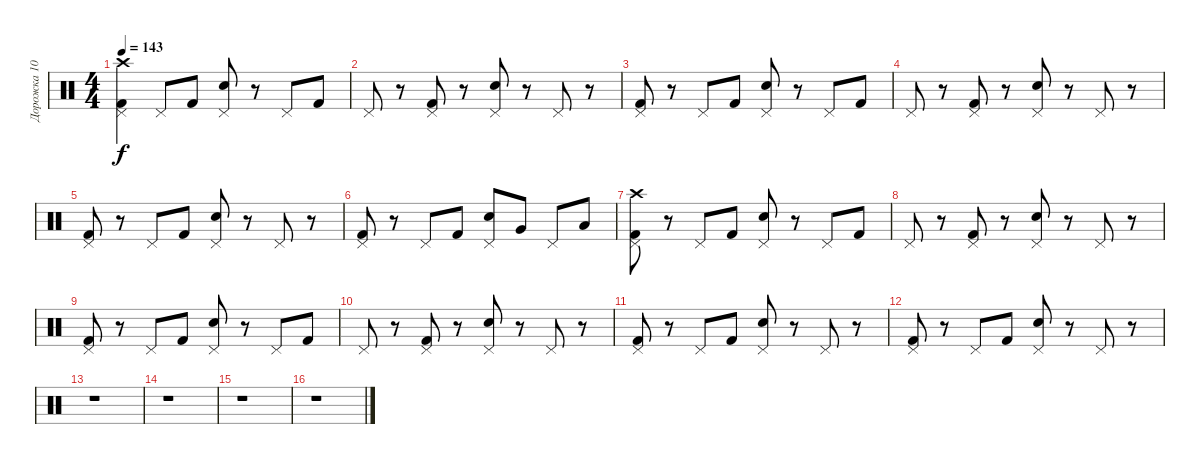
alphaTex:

\track ("Дорожка 10" "Дорожка 10") {instrument percussion}
\staff {score}
\articulation defaults
\ts (4 4)
\tempo 143
\clef neutral
\ks c
("Pedal Hi-Hat (hit)" "Kick (hit) 2" "Crash high (hit)").4{dy f} "Pedal Hi-Hat (hit)".8 "Kick (hit) 2".8 ("Pedal Hi-Hat (hit)" "Snare (hit) 2").8 r.8 "Pedal Hi-Hat (hit)".8 "Kick (hit) 2".8 |
"Pedal Hi-Hat (hit)".8 r.8 ("Pedal Hi-Hat (hit)" "Kick (hit) 2").8 r.8 ("Pedal Hi-Hat (hit)" "Snare (hit) 2").8 r.8 "Pedal Hi-Hat (hit)".8 r.8 |
("Pedal Hi-Hat (hit)" "Kick (hit) 2").8 r.8 "Pedal Hi-Hat (hit)".8 "Kick (hit) 2".8 ("Pedal Hi-Hat (hit)" "Snare (hit) 2").8 r.8 "Pedal Hi-Hat (hit)".8 "Kick (hit) 2".8 |
"Pedal Hi-Hat (hit)".8 r.8 ("Kick (hit) 2" "Pedal Hi-Hat (hit)").8 r.8 ("Pedal Hi-Hat (hit)" "Snare (hit) 2").8 r.8 "Pedal Hi-Hat (hit)".8 r.8 |
("Pedal Hi-Hat (hit)" "Kick (hit) 2").8 r.8 "Pedal Hi-Hat (hit)".8 "Kick (hit) 2".8 ("Pedal Hi-Hat (hit)" "Snare (hit) 2").8 r.8 "Pedal Hi-Hat (hit)".8 r.8 |
("Pedal Hi-Hat (hit)" "Kick (hit) 2").8 r.8 "Pedal Hi-Hat (hit)".8 "Kick (hit) 2".8 ("Pedal Hi-Hat (hit)" "Snare (hit) 2").8 "Very Low Tom (hit)".8 "Pedal Hi-Hat (hit)".8 "Low Tom (hit)".8 |
("Pedal Hi-Hat (hit)" "Kick (hit) 2" "Crash high (hit)").8 r.8 "Pedal Hi-Hat (hit)".8 "Kick (hit) 2".8 ("Pedal Hi-Hat (hit)" "Snare (hit) 2").8 r.8 "Pedal Hi-Hat (hit)".8 "Kick (hit) 2".8 |
"Pedal Hi-Hat (hit)".8 r.8 ("Pedal Hi-Hat (hit)" "Kick (hit) 2").8 r.8 ("Pedal Hi-Hat (hit)" "Snare (hit) 2").8 r.8 "Pedal Hi-Hat (hit)".8 r.8 |
("Pedal Hi-Hat (hit)" "Kick (hit) 2").8 r.8 "Pedal Hi-Hat (hit)".8 "Kick (hit) 2".8 ("Pedal Hi-Hat (hit)" "Snare (hit) 2").8 r.8 "Pedal Hi-Hat (hit)".8 "Kick (hit) 2".8 |
"Pedal Hi-Hat (hit)".8 r.8 ("Kick (hit) 2" "Pedal Hi-Hat (hit)").8 r.8 ("Pedal Hi-Hat (hit)" "Snare (hit) 2").8 r.8 "Pedal Hi-Hat (hit)".8 r.8 |
("Pedal Hi-Hat (hit)" "Kick (hit) 2").8 r.8 "Pedal Hi-Hat (hit)".8 "Kick (hit) 2".8 ("Pedal Hi-Hat (hit)" "Snare (hit) 2").8 r.8 "Pedal Hi-Hat (hit)".8 r.8 |
("Pedal Hi-Hat (hit)" "Kick (hit) 2").8 r.8 "Pedal Hi-Hat (hit)".8 "Kick (hit) 2".8 ("Pedal Hi-Hat (hit)" "Snare (hit) 2").8 r.8 "Pedal Hi-Hat (hit)".8 r.8 |
r.1 |
r.1 |
r.1 |
r.1
